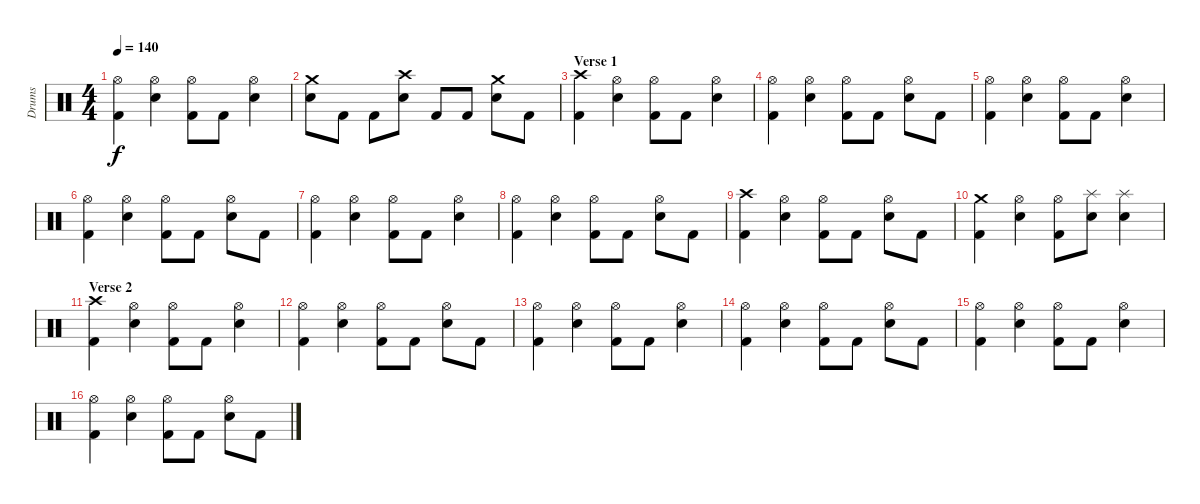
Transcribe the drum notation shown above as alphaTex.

\track ("Drums" "Drums") {instrument percussion}
\staff {score}
\articulation defaults
\ts (4 4)
\tempo 140
\clef neutral
\ks c
("Hi-Hat (open)" "Kick (hit) 2").4{dy f} ("Hi-Hat (open)" "Electric Snare (hit)").4 ("Hi-Hat (open)" "Kick (hit) 2").8 "Kick (hit) 2".8 ("Hi-Hat (open)" "Electric Snare (hit)").4 |
("Crash medium (hit)" "Electric Snare (hit)").8 "Kick (hit) 2".8 "Kick (hit) 2".8 ("Crash high (hit)" "Electric Snare (hit)").8 "Kick (hit) 2".8 "Kick (hit) 2".8 ("Crash medium (hit)" "Electric Snare (hit)").8 "Kick (hit) 2".8 |
\section ("" "Verse 1")
("Crash high (hit)" "Kick (hit) 2").4 ("Hi-Hat (open)" "Electric Snare (hit)").4 ("Hi-Hat (open)" "Kick (hit) 2").8 "Kick (hit) 2".8 ("Hi-Hat (open)" "Electric Snare (hit)").4 |
("Hi-Hat (open)" "Kick (hit) 2").4 ("Hi-Hat (open)" "Electric Snare (hit)").4 ("Hi-Hat (open)" "Kick (hit) 2").8 "Kick (hit) 2".8 ("Hi-Hat (open)" "Electric Snare (hit)").8 "Kick (hit) 2".8 |
("Hi-Hat (open)" "Kick (hit) 2").4 ("Hi-Hat (open)" "Electric Snare (hit)").4 ("Hi-Hat (open)" "Kick (hit) 2").8 "Kick (hit) 2".8 ("Hi-Hat (open)" "Electric Snare (hit)").4 |
("Hi-Hat (open)" "Kick (hit) 2").4 ("Hi-Hat (open)" "Electric Snare (hit)").4 ("Hi-Hat (open)" "Kick (hit) 2").8 "Kick (hit) 2".8 ("Hi-Hat (open)" "Electric Snare (hit)").8 "Kick (hit) 2".8 |
("Hi-Hat (open)" "Kick (hit) 2").4 ("Hi-Hat (open)" "Electric Snare (hit)").4 ("Hi-Hat (open)" "Kick (hit) 2").8 "Kick (hit) 2".8 ("Hi-Hat (open)" "Electric Snare (hit)").4 |
("Hi-Hat (open)" "Kick (hit) 2").4 ("Hi-Hat (open)" "Electric Snare (hit)").4 ("Hi-Hat (open)" "Kick (hit) 2").8 "Kick (hit) 2".8 ("Hi-Hat (open)" "Electric Snare (hit)").8 "Kick (hit) 2".8 |
("Crash high (hit)" "Kick (hit) 2").4 ("Hi-Hat (open)" "Electric Snare (hit)").4 ("Hi-Hat (open)" "Kick (hit) 2").8 "Kick (hit) 2".8 ("Hi-Hat (open)" "Electric Snare (hit)").8 "Kick (hit) 2".8 |
("Crash medium (hit)" "Kick (hit) 2").4 ("Hi-Hat (open)" "Electric Snare (hit)").4 ("Hi-Hat (open)" "Kick (hit) 2").8 ("Splash (hit)" "Electric Snare (hit)").8 ("Splash (hit)" "Electric Snare (hit)").4 |
\section ("" "Verse 2")
("Crash high (hit)" "Kick (hit) 2").4 ("Hi-Hat (open)" "Electric Snare (hit)").4 ("Hi-Hat (open)" "Kick (hit) 2").8 "Kick (hit) 2".8 ("Hi-Hat (open)" "Electric Snare (hit)").4 |
("Hi-Hat (open)" "Kick (hit) 2").4 ("Hi-Hat (open)" "Electric Snare (hit)").4 ("Hi-Hat (open)" "Kick (hit) 2").8 "Kick (hit) 2".8 ("Hi-Hat (open)" "Electric Snare (hit)").8 "Kick (hit) 2".8 |
("Hi-Hat (open)" "Kick (hit) 2").4 ("Hi-Hat (open)" "Electric Snare (hit)").4 ("Hi-Hat (open)" "Kick (hit) 2").8 "Kick (hit) 2".8 ("Hi-Hat (open)" "Electric Snare (hit)").4 |
("Hi-Hat (open)" "Kick (hit) 2").4 ("Hi-Hat (open)" "Electric Snare (hit)").4 ("Hi-Hat (open)" "Kick (hit) 2").8 "Kick (hit) 2".8 ("Hi-Hat (open)" "Electric Snare (hit)").8 "Kick (hit) 2".8 |
("Hi-Hat (open)" "Kick (hit) 2").4 ("Hi-Hat (open)" "Electric Snare (hit)").4 ("Hi-Hat (open)" "Kick (hit) 2").8 "Kick (hit) 2".8 ("Hi-Hat (open)" "Electric Snare (hit)").4 |
("Hi-Hat (open)" "Kick (hit) 2").4 ("Hi-Hat (open)" "Electric Snare (hit)").4 ("Hi-Hat (open)" "Kick (hit) 2").8 "Kick (hit) 2".8 ("Hi-Hat (open)" "Electric Snare (hit)").8 "Kick (hit) 2".8
